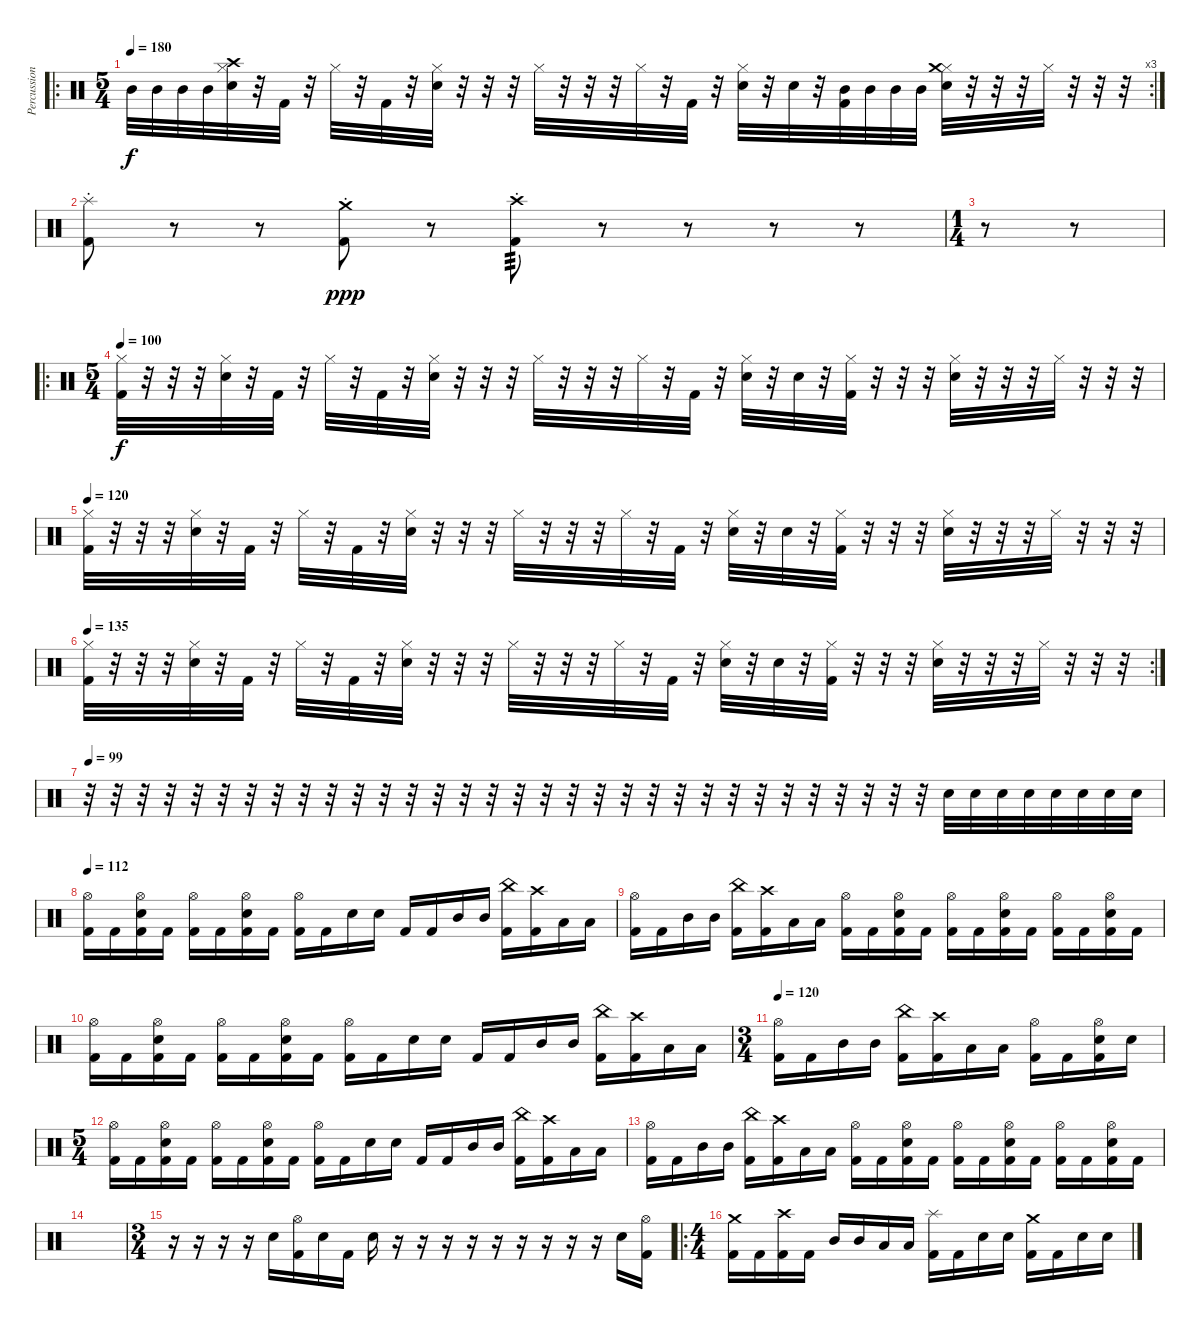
\track ("Percussion" "Percussion") {instrument percussion}
\staff {score}
\articulation defaults
\ro
\rc 3
\ts (5 4)
\tempo 180
\clef neutral
\ks c "Mid Tom (hit)".32{dy f} "Mid Tom (hit)".32 "Mid Tom (hit)".32 "Mid Tom (hit)".32
("Hi-Hat (closed)" "Crash high (hit)" "Snare (hit) 2").32 r.32 "Kick (hit) 2".32 r.32 "Hi-Hat (closed)".32 r.32 "Kick (hit) 2".32 r.32 ("Hi-Hat (closed)" "Snare (hit) 2").32 r.32 r.32 r.32 "Hi-Hat (closed)".32 r.32 r.32 r.32 "Hi-Hat (closed)".32 r.32 "Kick (hit) 2".32 r.32 ("Hi-Hat (closed)" "Snare (hit) 2").32 r.32 "Snare (hit) 2".32 r.32 ("Mid Tom (hit)" "Kick (hit) 2").32 "Mid Tom (hit)".32 "Mid Tom (hit)".32 "Mid Tom (hit)".32 ("Hi-Hat (closed)" "Snare (hit) 2" "Crash medium (hit)").32 r.32 r.32 r.32 "Hi-Hat (closed)".32 r.32 r.32 r.32 |
("Splash (hit)"{st} "Kick (hit) 2").8 r.8 r.8 ("Crash medium (hit)"{st} "Kick (hit) 2").8{dy ppp} r.8 ("Crash high (hit)"{st} "Kick (hit) 2").8{tp 3} r.8 r.8 r.8 r.8 |
\ts (1 4)
r.8 r.8 |
\ro
\ts (5 4)
\tempo 100
("Hi-Hat (closed)" "Kick (hit) 2").32{dy f} r.32 r.32 r.32 ("Hi-Hat (closed)" "Snare (hit) 2").32 r.32 "Kick (hit) 2".32 r.32 "Hi-Hat (closed)".32 r.32 "Kick (hit) 2".32 r.32 ("Hi-Hat (closed)" "Snare (hit) 2").32 r.32 r.32 r.32 "Hi-Hat (closed)".32 r.32 r.32 r.32 "Hi-Hat (closed)".32 r.32 "Kick (hit) 2".32 r.32 ("Hi-Hat (closed)" "Snare (hit) 2").32 r.32 "Snare (hit) 2".32 r.32 ("Hi-Hat (closed)" "Kick (hit) 2").32 r.32 r.32 r.32 ("Hi-Hat (closed)" "Snare (hit) 2").32 r.32 r.32 r.32 "Hi-Hat (closed)".32 r.32 r.32 r.32 |
\tempo 120
("Hi-Hat (closed)" "Kick (hit) 2").32 r.32 r.32 r.32 ("Hi-Hat (closed)" "Snare (hit) 2").32 r.32 "Kick (hit) 2".32 r.32 "Hi-Hat (closed)".32 r.32 "Kick (hit) 2".32 r.32 ("Hi-Hat (closed)" "Snare (hit) 2").32 r.32 r.32 r.32 "Hi-Hat (closed)".32 r.32 r.32 r.32 "Hi-Hat (closed)".32 r.32 "Kick (hit) 2".32 r.32 ("Hi-Hat (closed)" "Snare (hit) 2").32 r.32 "Snare (hit) 2".32 r.32 ("Hi-Hat (closed)" "Kick (hit) 2").32 r.32 r.32 r.32 ("Hi-Hat (closed)" "Snare (hit) 2").32 r.32 r.32 r.32 "Hi-Hat (closed)".32 r.32 r.32 r.32 |
\rc 2
\tempo 135
("Hi-Hat (closed)" "Kick (hit) 2").32 r.32 r.32 r.32 ("Hi-Hat (closed)" "Snare (hit) 2").32 r.32 "Kick (hit) 2".32 r.32 "Hi-Hat (closed)".32 r.32 "Kick (hit) 2".32 r.32 ("Hi-Hat (closed)" "Snare (hit) 2").32 r.32 r.32 r.32 "Hi-Hat (closed)".32 r.32 r.32 r.32 "Hi-Hat (closed)".32 r.32 "Kick (hit) 2".32 r.32 ("Hi-Hat (closed)" "Snare (hit) 2").32 r.32 "Snare (hit) 2".32 r.32 ("Hi-Hat (closed)" "Kick (hit) 2").32 r.32 r.32 r.32 ("Hi-Hat (closed)" "Snare (hit) 2").32 r.32 r.32 r.32 "Hi-Hat (closed)".32 r.32 r.32 r.32 |
\tempo 99
r.32 r.32 r.32 r.32 r.32 r.32 r.32 r.32 r.32 r.32 r.32 r.32 r.32 r.32 r.32 r.32 r.32 r.32 r.32 r.32 r.32 r.32 r.32 r.32 r.32 r.32 r.32 r.32 r.32 r.32 r.32 r.32 "Snare (hit) 2".32 "Snare (hit) 2".32 "Snare (hit) 2".32 "Snare (hit) 2".32 "Snare (hit) 2".32 "Snare (hit) 2".32 "Snare (hit) 2".32 "Snare (hit) 2".32 |
\tempo 112
("Hi-Hat (open)" "Kick (hit) 2").16 "Kick (hit) 2".16 ("Hi-Hat (open)" "Snare (hit) 2" "Kick (hit) 2").16 "Kick (hit) 2".16 ("Hi-Hat (open)" "Kick (hit) 2").16 "Kick (hit) 2".16 ("Hi-Hat (open)" "Snare (hit) 2" "Kick (hit) 2").16 "Kick (hit) 2".16 ("Hi-Hat (open)" "Kick (hit) 2").16 "Kick (hit) 2".16 "Snare (hit) 2".16 "Snare (hit) 2".16 "Kick (hit) 2".16 "Kick (hit) 2".16 "Mid Tom (hit)".16 "Mid Tom (hit)".16 ("China (hit)" "Kick (hit) 2").16 ("Crash high (hit)" "Kick (hit) 2").16 "Low Tom (hit)".16 "Low Tom (hit)".16 |
("Hi-Hat (open)" "Kick (hit) 2").16 "Kick (hit) 2".16 "Mid Tom (hit)".16 "Mid Tom (hit)".16 ("China (hit)" "Kick (hit) 2").16 ("Crash high (hit)" "Kick (hit) 2").16 "Low Tom (hit)".16 "Low Tom (hit)".16 ("Hi-Hat (open)" "Kick (hit) 2").16 "Kick (hit) 2".16 ("Hi-Hat (open)" "Snare (hit) 2" "Kick (hit) 2").16 "Kick (hit) 2".16 ("Hi-Hat (open)" "Kick (hit) 2").16 "Kick (hit) 2".16 ("Hi-Hat (open)" "Snare (hit) 2" "Kick (hit) 2").16 "Kick (hit) 2".16 ("Hi-Hat (open)" "Kick (hit) 2").16 "Kick (hit) 2".16 ("Hi-Hat (open)" "Snare (hit) 2" "Kick (hit) 2").16 "Kick (hit) 2".16 |
("Hi-Hat (open)" "Kick (hit) 2").16 "Kick (hit) 2".16 ("Hi-Hat (open)" "Snare (hit) 2" "Kick (hit) 2").16 "Kick (hit) 2".16 ("Hi-Hat (open)" "Kick (hit) 2").16 "Kick (hit) 2".16 ("Hi-Hat (open)" "Snare (hit) 2" "Kick (hit) 2").16 "Kick (hit) 2".16 ("Hi-Hat (open)" "Kick (hit) 2").16 "Kick (hit) 2".16 "Snare (hit) 2".16 "Snare (hit) 2".16 "Kick (hit) 2".16 "Kick (hit) 2".16 "Mid Tom (hit)".16 "Mid Tom (hit)".16 ("China (hit)" "Kick (hit) 2").16 ("Crash high (hit)" "Kick (hit) 2").16 "Low Tom (hit)".16 "Low Tom (hit)".16 |
\ts (3 4)
\tempo 120
("Hi-Hat (open)" "Kick (hit) 2").16 "Kick (hit) 2".16 "Mid Tom (hit)".16 "Mid Tom (hit)".16 ("China (hit)" "Kick (hit) 2").16 ("Crash high (hit)" "Kick (hit) 2").16 "Low Tom (hit)".16 "Low Tom (hit)".16 ("Hi-Hat (open)" "Kick (hit) 2").16 "Kick (hit) 2".16 ("Hi-Hat (open)" "Snare (hit) 2" "Kick (hit) 2").16 "Snare (hit) 2".16 |
\ts (5 4)
("Hi-Hat (open)" "Kick (hit) 2").16 "Kick (hit) 2".16 ("Hi-Hat (open)" "Snare (hit) 2" "Kick (hit) 2").16 "Kick (hit) 2".16 ("Hi-Hat (open)" "Kick (hit) 2").16 "Kick (hit) 2".16 ("Hi-Hat (open)" "Snare (hit) 2" "Kick (hit) 2").16 "Kick (hit) 2".16 ("Hi-Hat (open)" "Kick (hit) 2").16 "Kick (hit) 2".16 "Snare (hit) 2".16 "Snare (hit) 2".16 "Kick (hit) 2".16 "Kick (hit) 2".16 "Mid Tom (hit)".16 "Mid Tom (hit)".16 ("China (hit)" "Kick (hit) 2").16 ("Crash high (hit)" "Kick (hit) 2").16 "Low Tom (hit)".16 "Low Tom (hit)".16 |
("Hi-Hat (open)" "Kick (hit) 2").16 "Kick (hit) 2".16 "Mid Tom (hit)".16 "Mid Tom (hit)".16 ("China (hit)" "Kick (hit) 2").16 ("Crash high (hit)" "Kick (hit) 2").16 "Low Tom (hit)".16 "Low Tom (hit)".16 ("Hi-Hat (open)" "Kick (hit) 2").16 "Kick (hit) 2".16 ("Hi-Hat (open)" "Snare (hit) 2" "Kick (hit) 2").16 "Kick (hit) 2".16 ("Hi-Hat (open)" "Kick (hit) 2").16 "Kick (hit) 2".16 ("Hi-Hat (open)" "Snare (hit) 2" "Kick (hit) 2").16 "Kick (hit) 2".16 ("Hi-Hat (open)" "Kick (hit) 2").16 "Kick (hit) 2".16 ("Hi-Hat (open)" "Snare (hit) 2" "Kick (hit) 2").16 "Kick (hit) 2".16 |
|
\ts (3 4)
r.16 r.16 r.16 r.16 "Snare (hit) 2".16 ("Kick (hit) 2" "Hi-Hat (open)").16 "Snare (hit) 2".16 "Kick (hit) 2".16 "Snare (hit) 2".16 r.16 r.16 r.16 r.16 r.16 r.16 r.16 r.16 r.16 "Snare (hit) 2".16 ("Kick (hit) 2" "Hi-Hat (open)").16 |
\ro
\ts (4 4)
("Crash medium (hit)" "Kick (hit) 2").16 "Kick (hit) 2".16 ("Crash high (hit)" "Kick (hit) 2").16 "Kick (hit) 2".16 "Mid Tom (hit)".16 "Mid Tom (hit)".16 "Low Tom (hit)".16 "Low Tom (hit)".16 ("Splash (hit)" "Kick (hit) 2").16 "Kick (hit) 2".16 "Snare (hit) 2".16 "Snare (hit) 2".16 ("Crash medium (hit)" "Kick (hit) 2").16 "Kick (hit) 2".16 "Snare (hit) 2".16 "Snare (hit) 2".16
